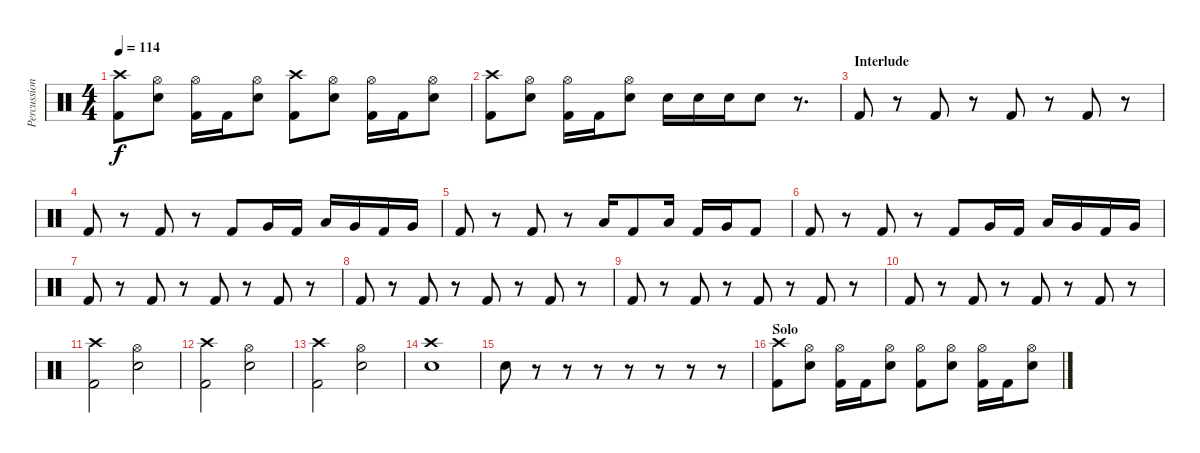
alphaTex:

\track ("Percussion" "Percussion") {instrument percussion}
\staff {score}
\articulation defaults
\ts (4 4)
\tempo 114
\clef neutral
\ks c
("Crash high (hit)" "Kick (hit) 2").8{dy f} ("Hi-Hat (open)" "Electric Snare (hit)").8 ("Hi-Hat (open)" "Kick (hit) 2").16 "Kick (hit) 2".16 ("Hi-Hat (open)" "Electric Snare (hit)").8 ("Crash high (hit)" "Kick (hit) 2").8 ("Hi-Hat (open)" "Electric Snare (hit)").8 ("Hi-Hat (open)" "Kick (hit) 2").16 "Kick (hit) 2".16 ("Hi-Hat (open)" "Electric Snare (hit)").8 |
("Crash high (hit)" "Kick (hit) 2").8 ("Hi-Hat (open)" "Electric Snare (hit)").8 ("Hi-Hat (open)" "Kick (hit) 2").16 "Kick (hit) 2".16 ("Hi-Hat (open)" "Electric Snare (hit)").8 "Electric Snare (hit)".16 "Electric Snare (hit)".16 "Electric Snare (hit)".16 "Electric Snare (hit)".8 r.8{d} |
\section ("" "Interlude")
"Kick (hit) 2".8 r.8 "Kick (hit) 2".8 r.8 "Kick (hit) 2".8 r.8 "Kick (hit) 2".8 r.8 |
"Kick (hit) 2".8 r.8 "Kick (hit) 2".8 r.8 "Kick (hit) 2".8 "Very Low Tom (hit)".16 "Kick (hit) 2".16 "Low Tom (hit)".16 "Very Low Tom (hit)".16 "Kick (hit) 2".16 "Very Low Tom (hit)".16 |
"Kick (hit) 2".8 r.8 "Kick (hit) 2".8 r.8 "Low Tom (hit)".16 "Kick (hit) 2".8 "Low Tom (hit)".16 "Kick (hit) 2".16 "Very Low Tom (hit)".16 "Kick (hit) 2".8 |
"Kick (hit) 2".8 r.8 "Kick (hit) 2".8 r.8 "Kick (hit) 2".8 "Very Low Tom (hit)".16 "Kick (hit) 2".16 "Low Tom (hit)".16 "Very Low Tom (hit)".16 "Kick (hit) 2".16 "Very Low Tom (hit)".16 |
"Kick (hit) 2".8 r.8 "Kick (hit) 2".8 r.8 "Kick (hit) 2".8 r.8 "Kick (hit) 2".8 r.8 |
"Kick (hit) 2".8 r.8 "Kick (hit) 2".8 r.8 "Kick (hit) 2".8 r.8 "Kick (hit) 2".8 r.8 |
"Kick (hit) 2".8 r.8 "Kick (hit) 2".8 r.8 "Kick (hit) 2".8 r.8 "Kick (hit) 2".8 r.8 |
"Kick (hit) 2".8 r.8 "Kick (hit) 2".8 r.8 "Kick (hit) 2".8 r.8 "Kick (hit) 2".8 r.8 |
("Crash high (hit)" "Kick (hit) 2").2 ("Hi-Hat (open)" "Electric Snare (hit)").2 |
("Crash high (hit)" "Kick (hit) 2").2 ("Hi-Hat (open)" "Electric Snare (hit)").2 |
("Crash high (hit)" "Kick (hit) 2").2 ("Hi-Hat (open)" "Electric Snare (hit)").2 |
("Crash high (hit)" "Electric Snare (hit)").1 |
"Electric Snare (hit)".8 r.8 r.8 r.8 r.8 r.8 r.8 r.8 |
\section ("" "Solo")
("Crash high (hit)" "Kick (hit) 2").8 ("Hi-Hat (open)" "Electric Snare (hit)").8 ("Hi-Hat (open)" "Kick (hit) 2").16 "Kick (hit) 2".16 ("Hi-Hat (open)" "Electric Snare (hit)").8 ("Hi-Hat (open)" "Kick (hit) 2").8 ("Hi-Hat (open)" "Electric Snare (hit)").8 ("Hi-Hat (open)" "Kick (hit) 2").16 "Kick (hit) 2".16 ("Hi-Hat (open)" "Electric Snare (hit)").8
